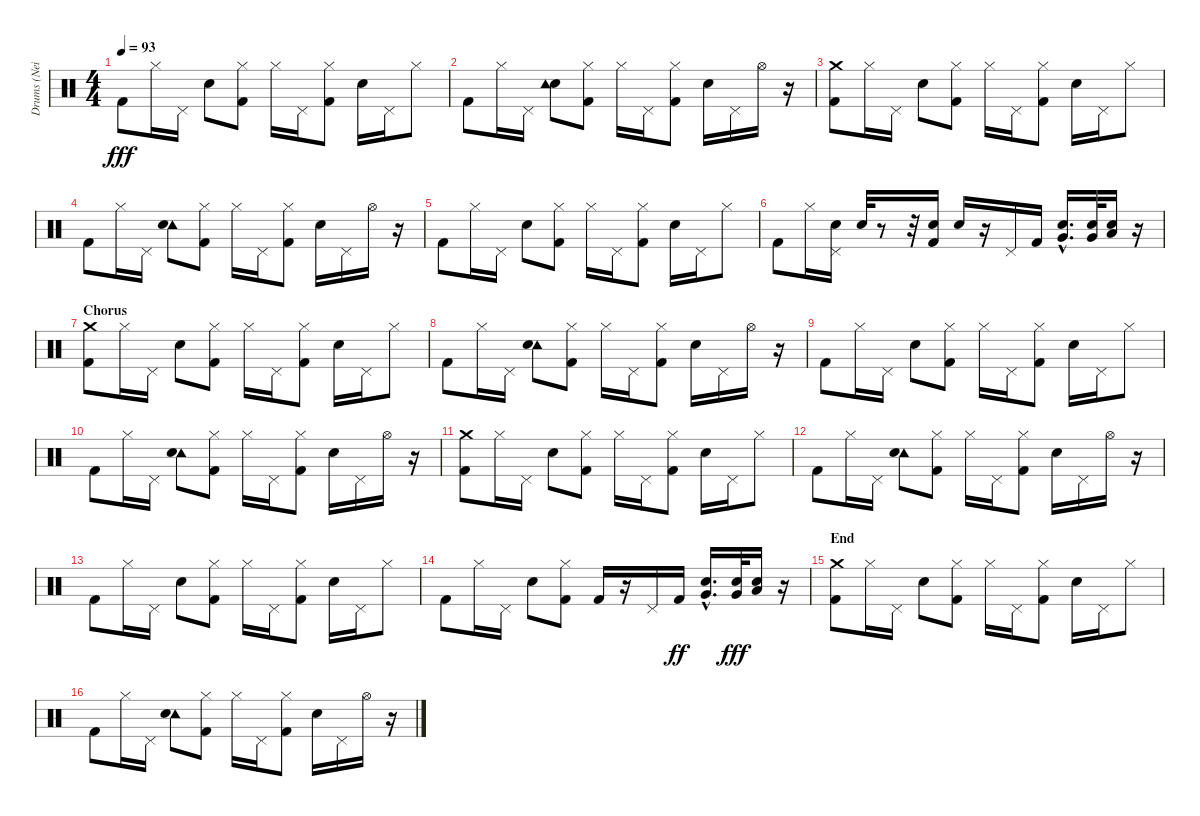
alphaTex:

\track ("Drums (Neil)" "Drums (Nei") {instrument percussion}
\staff {score}
\articulation defaults
\ts (4 4)
\tempo 93
\clef neutral
\ks c "Kick (hit) 2".8{dy fff} "Hi-Hat (closed)".16 "Pedal Hi-Hat (hit)".16 "Electric Snare (hit)".8
("Kick (hit) 2" "Hi-Hat (closed)").8 "Hi-Hat (closed)".16 "Pedal Hi-Hat (hit)".16 ("Kick (hit) 2" "Hi-Hat (closed)").8 "Electric Snare (hit)".16 "Pedal Hi-Hat (hit)".16 "Hi-Hat (closed)".8 |
"Kick (hit) 2".8 "Hi-Hat (closed)".16 "Pedal Hi-Hat (hit)".16 ("Electric Snare (hit)" "Tambourine (hit)").8 ("Hi-Hat (closed)" "Kick (hit) 2").8 "Hi-Hat (closed)".16 "Pedal Hi-Hat (hit)".16 ("Kick (hit) 2" "Hi-Hat (closed)").8 "Electric Snare (hit)".16 "Pedal Hi-Hat (hit)".16 "Hi-Hat (open)".16 r.16 |
("Crash medium (hit)" "Kick (hit) 2").8 "Hi-Hat (closed)".16 "Pedal Hi-Hat (hit)".16 "Electric Snare (hit)".8 ("Kick (hit) 2" "Hi-Hat (closed)").8 "Hi-Hat (closed)".16 "Pedal Hi-Hat (hit)".16 ("Hi-Hat (closed)" "Kick (hit) 2").8 "Electric Snare (hit)".16 "Pedal Hi-Hat (hit)".16 "Hi-Hat (closed)".8 |
"Kick (hit) 2".8 "Hi-Hat (closed)".16 "Pedal Hi-Hat (hit)".16 ("Tambourine (hit)" "Electric Snare (hit)").8 ("Hi-Hat (closed)" "Kick (hit) 2").8 "Hi-Hat (closed)".16 "Pedal Hi-Hat (hit)".16 ("Hi-Hat (closed)" "Kick (hit) 2").8 "Electric Snare (hit)".16 "Pedal Hi-Hat (hit)".16 "Hi-Hat (open)".16 r.16 |
"Kick (hit) 2".8 "Hi-Hat (closed)".16 "Pedal Hi-Hat (hit)".16 "Electric Snare (hit)".8 ("Kick (hit) 2" "Hi-Hat (closed)").8 "Hi-Hat (closed)".16 "Pedal Hi-Hat (hit)".16 ("Kick (hit) 2" "Hi-Hat (closed)").8 "Electric Snare (hit)".16 "Pedal Hi-Hat (hit)".16 "Hi-Hat (closed)".8 |
"Kick (hit) 2".8 "Hi-Hat (closed)".16 ("Electric Snare (hit)" "Pedal Hi-Hat (hit)").16 "Electric Snare (hit)".32 r.8 r.32 ("Electric Snare (hit)" "Kick (hit) 2").16 "Electric Snare (hit)".16 r.16 "Pedal Hi-Hat (hit)".16 "Kick (hit) 2".16 ("Very Low Tom (hit)" "Electric Snare (hit)"{hac}).16{d} ("Very Low Tom (hit)" "Electric Snare (hit)").32 ("Low Floor Tom (hit)" "Electric Snare (hit)").16 r.16 |
\section ("" "Chorus")
("Kick (hit) 2" "Crash medium (hit)").8 "Hi-Hat (closed)".16 "Pedal Hi-Hat (hit)".16 "Electric Snare (hit)".8 ("Hi-Hat (closed)" "Kick (hit) 2").8 "Hi-Hat (closed)".16 "Pedal Hi-Hat (hit)".16 ("Hi-Hat (closed)" "Kick (hit) 2").8 "Electric Snare (hit)".16 "Pedal Hi-Hat (hit)".16 "Hi-Hat (closed)".8 |
"Kick (hit) 2".8 "Hi-Hat (closed)".16 "Pedal Hi-Hat (hit)".16 ("Tambourine (hit)" "Electric Snare (hit)").8 ("Hi-Hat (closed)" "Kick (hit) 2").8 "Hi-Hat (closed)".16 "Pedal Hi-Hat (hit)".16 ("Hi-Hat (closed)" "Kick (hit) 2").8 "Electric Snare (hit)".16 "Pedal Hi-Hat (hit)".16 "Hi-Hat (open)".16 r.16 |
"Kick (hit) 2".8 "Hi-Hat (closed)".16 "Pedal Hi-Hat (hit)".16 "Electric Snare (hit)".8 ("Kick (hit) 2" "Hi-Hat (closed)").8 "Hi-Hat (closed)".16 "Pedal Hi-Hat (hit)".16 ("Kick (hit) 2" "Hi-Hat (closed)").8 "Electric Snare (hit)".16 "Pedal Hi-Hat (hit)".16 "Hi-Hat (closed)".8 |
"Kick (hit) 2".8 "Hi-Hat (closed)".16 "Pedal Hi-Hat (hit)".16 ("Tambourine (hit)" "Electric Snare (hit)").8 ("Hi-Hat (closed)" "Kick (hit) 2").8 "Hi-Hat (closed)".16 "Pedal Hi-Hat (hit)".16 ("Kick (hit) 2" "Hi-Hat (closed)").8 "Electric Snare (hit)".16 "Pedal Hi-Hat (hit)".16 "Hi-Hat (open)".16 r.16 |
("Crash medium (hit)" "Kick (hit) 2").8 "Hi-Hat (closed)".16 "Pedal Hi-Hat (hit)".16 "Electric Snare (hit)".8 ("Kick (hit) 2" "Hi-Hat (closed)").8 "Hi-Hat (closed)".16 "Pedal Hi-Hat (hit)".16 ("Kick (hit) 2" "Hi-Hat (closed)").8 "Electric Snare (hit)".16 "Pedal Hi-Hat (hit)".16 "Hi-Hat (closed)".8 |
"Kick (hit) 2".8 "Hi-Hat (closed)".16 "Pedal Hi-Hat (hit)".16 ("Tambourine (hit)" "Electric Snare (hit)").8 ("Hi-Hat (closed)" "Kick (hit) 2").8 "Hi-Hat (closed)".16 "Pedal Hi-Hat (hit)".16 ("Hi-Hat (closed)" "Kick (hit) 2").8 "Electric Snare (hit)".16 "Pedal Hi-Hat (hit)".16 "Hi-Hat (open)".16 r.16 |
"Kick (hit) 2".8 "Hi-Hat (closed)".16 "Pedal Hi-Hat (hit)".16 "Electric Snare (hit)".8 ("Kick (hit) 2" "Hi-Hat (closed)").8 "Hi-Hat (closed)".16 "Pedal Hi-Hat (hit)".16 ("Hi-Hat (closed)" "Kick (hit) 2").8 "Electric Snare (hit)".16 "Pedal Hi-Hat (hit)".16 "Hi-Hat (closed)".8 |
"Kick (hit) 2".8 "Hi-Hat (closed)".16 "Pedal Hi-Hat (hit)".16 "Electric Snare (hit)".8 ("Kick (hit) 2" "Hi-Hat (closed)").8 "Kick (hit) 2".16 r.16 "Pedal Hi-Hat (hit)".16 "Kick (hit) 2".16{dy ff} ("Electric Snare (hit)"{hac} "Very Low Tom (hit)").16{d} ("Very Low Tom (hit)" "Electric Snare (hit)").32{dy fff} ("Low Floor Tom (hit)" "Electric Snare (hit)").16 r.16 |
\section ("" "End")
("Kick (hit) 2" "Crash medium (hit)").8 "Hi-Hat (closed)".16 "Pedal Hi-Hat (hit)".16 "Electric Snare (hit)".8 ("Hi-Hat (closed)" "Kick (hit) 2").8 "Hi-Hat (closed)".16 "Pedal Hi-Hat (hit)".16 ("Hi-Hat (closed)" "Kick (hit) 2").8 "Electric Snare (hit)".16 "Pedal Hi-Hat (hit)".16 "Hi-Hat (closed)".8 |
"Kick (hit) 2".8 "Hi-Hat (closed)".16 "Pedal Hi-Hat (hit)".16 ("Tambourine (hit)" "Electric Snare (hit)").8 ("Hi-Hat (closed)" "Kick (hit) 2").8 "Hi-Hat (closed)".16 "Pedal Hi-Hat (hit)".16 ("Hi-Hat (closed)" "Kick (hit) 2").8 "Electric Snare (hit)".16 "Pedal Hi-Hat (hit)".16 "Hi-Hat (open)".16 r.16
